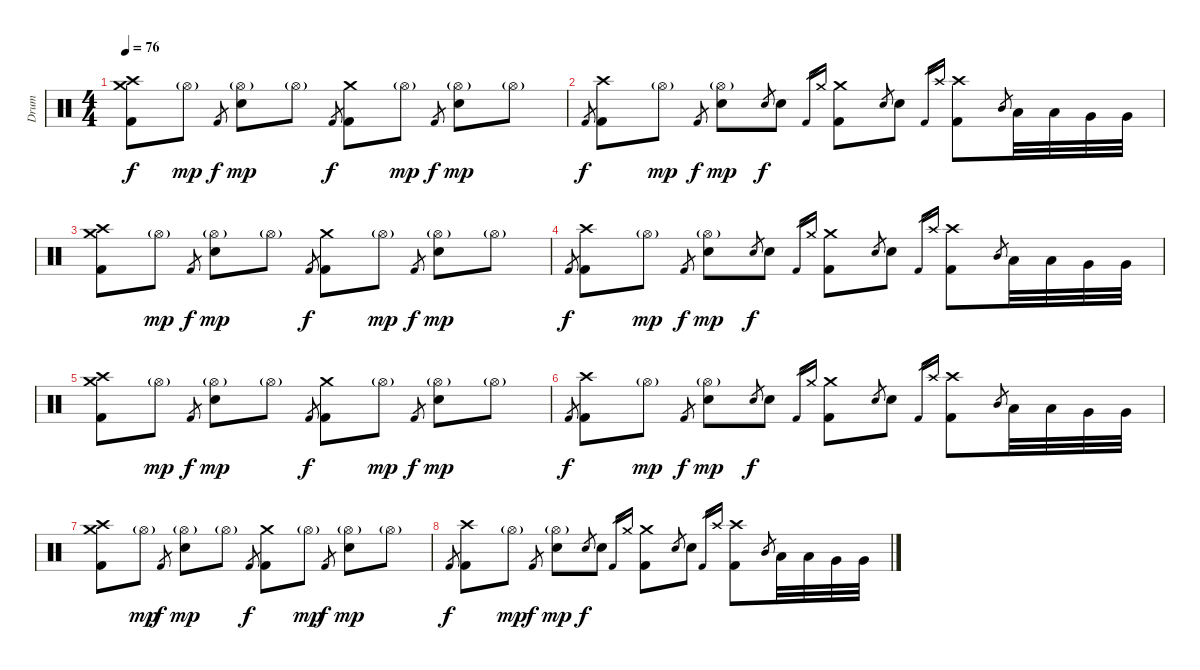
\track ("Drum" "Drum") {instrument percussion}
\staff {score}
\articulation defaults
\ts (4 4)
\tempo 76
\clef neutral
\ks c
("Kick (hit) 2" "Crash medium (hit)" "Crash high (hit)").8{dy f} "Hi-Hat (open)"{g}.8{dy mp} "Kick (hit) 2".8{gr dy f} ("Hi-Hat (open)"{g} "Electric Snare (hit)").8{dy mp} "Hi-Hat (open)"{g}.8 "Kick (hit) 2".8{gr dy f} ("Kick (hit) 2" "Crash medium (hit)").8 "Hi-Hat (open)"{g}.8{dy mp} "Kick (hit) 2".8{gr dy f} ("Hi-Hat (open)"{g} "Electric Snare (hit)").8{dy mp} "Hi-Hat (open)"{g}.8 |
"Kick (hit) 2".8{gr dy f} ("Kick (hit) 2" "Crash high (hit)").8 "Hi-Hat (open)"{g}.8{dy mp} "Kick (hit) 2".8{gr dy f} ("Hi-Hat (open)"{g} "Electric Snare (hit)").8{dy mp} "Electric Snare (hit)".8{gr dy f} "Electric Snare (hit)".8 "Kick (hit) 2".16{gr} "Crash medium (hit)".16{gr} ("Kick (hit) 2" "Crash medium (hit)").8 "Electric Snare (hit)".8{gr} "Electric Snare (hit)".8 "Kick (hit) 2".16{gr} "Crash high (hit)".16{gr} ("Kick (hit) 2" "Crash high (hit)").8 "Mid Tom (hit)".8{gr} "Low Tom (hit)".32 "Low Tom (hit)".32 "Very Low Tom (hit)".32 "Very Low Tom (hit)".32 |
("Kick (hit) 2" "Crash medium (hit)" "Crash high (hit)").8 "Hi-Hat (open)"{g}.8{dy mp} "Kick (hit) 2".8{gr dy f} ("Hi-Hat (open)"{g} "Electric Snare (hit)").8{dy mp} "Hi-Hat (open)"{g}.8 "Kick (hit) 2".8{gr dy f} ("Kick (hit) 2" "Crash medium (hit)").8 "Hi-Hat (open)"{g}.8{dy mp} "Kick (hit) 2".8{gr dy f} ("Hi-Hat (open)"{g} "Electric Snare (hit)").8{dy mp} "Hi-Hat (open)"{g}.8 |
"Kick (hit) 2".8{gr dy f} ("Kick (hit) 2" "Crash high (hit)").8 "Hi-Hat (open)"{g}.8{dy mp} "Kick (hit) 2".8{gr dy f} ("Hi-Hat (open)"{g} "Electric Snare (hit)").8{dy mp} "Electric Snare (hit)".8{gr dy f} "Electric Snare (hit)".8 "Kick (hit) 2".16{gr} "Crash medium (hit)".16{gr} ("Kick (hit) 2" "Crash medium (hit)").8 "Electric Snare (hit)".8{gr} "Electric Snare (hit)".8 "Kick (hit) 2".16{gr} "Crash high (hit)".16{gr} ("Kick (hit) 2" "Crash high (hit)").8 "Mid Tom (hit)".8{gr} "Low Tom (hit)".32 "Low Tom (hit)".32 "Very Low Tom (hit)".32 "Very Low Tom (hit)".32 |
("Kick (hit) 2" "Crash medium (hit)" "Crash high (hit)").8{volume 0} "Hi-Hat (open)"{g}.8{dy mp} "Kick (hit) 2".8{gr dy f} ("Hi-Hat (open)"{g} "Electric Snare (hit)").8{dy mp} "Hi-Hat (open)"{g}.8 "Kick (hit) 2".8{gr dy f} ("Kick (hit) 2" "Crash medium (hit)").8 "Hi-Hat (open)"{g}.8{dy mp} "Kick (hit) 2".8{gr dy f} ("Hi-Hat (open)"{g} "Electric Snare (hit)").8{dy mp} "Hi-Hat (open)"{g}.8 |
"Kick (hit) 2".8{gr dy f} ("Kick (hit) 2" "Crash high (hit)").8 "Hi-Hat (open)"{g}.8{dy mp} "Kick (hit) 2".8{gr dy f} ("Hi-Hat (open)"{g} "Electric Snare (hit)").8{dy mp} "Electric Snare (hit)".8{gr dy f} "Electric Snare (hit)".8 "Kick (hit) 2".16{gr} "Crash medium (hit)".16{gr} ("Kick (hit) 2" "Crash medium (hit)").8 "Electric Snare (hit)".8{gr} "Electric Snare (hit)".8 "Kick (hit) 2".16{gr} "Crash high (hit)".16{gr} ("Kick (hit) 2" "Crash high (hit)").8 "Mid Tom (hit)".8{gr} "Low Tom (hit)".32 "Low Tom (hit)".32 "Very Low Tom (hit)".32 "Very Low Tom (hit)".32 |
("Kick (hit) 2" "Crash medium (hit)" "Crash high (hit)").8 "Hi-Hat (open)"{g}.8{dy mp} "Kick (hit) 2".8{gr dy f} ("Hi-Hat (open)"{g} "Electric Snare (hit)").8{dy mp} "Hi-Hat (open)"{g}.8 "Kick (hit) 2".8{gr dy f} ("Kick (hit) 2" "Crash medium (hit)").8 "Hi-Hat (open)"{g}.8{dy mp} "Kick (hit) 2".8{gr dy f} ("Hi-Hat (open)"{g} "Electric Snare (hit)").8{dy mp} "Hi-Hat (open)"{g}.8 |
"Kick (hit) 2".8{gr dy f} ("Kick (hit) 2" "Crash high (hit)").8 "Hi-Hat (open)"{g}.8{dy mp} "Kick (hit) 2".8{gr dy f} ("Hi-Hat (open)"{g} "Electric Snare (hit)").8{dy mp} "Electric Snare (hit)".8{gr dy f} "Electric Snare (hit)".8 "Kick (hit) 2".16{gr} "Crash medium (hit)".16{gr} ("Kick (hit) 2" "Crash medium (hit)").8 "Electric Snare (hit)".8{gr} "Electric Snare (hit)".8 "Kick (hit) 2".16{gr} "Crash high (hit)".16{gr} ("Kick (hit) 2" "Crash high (hit)").8 "Mid Tom (hit)".8{gr} "Low Tom (hit)".32 "Low Tom (hit)".32 "Very Low Tom (hit)".32 "Very Low Tom (hit)".32
